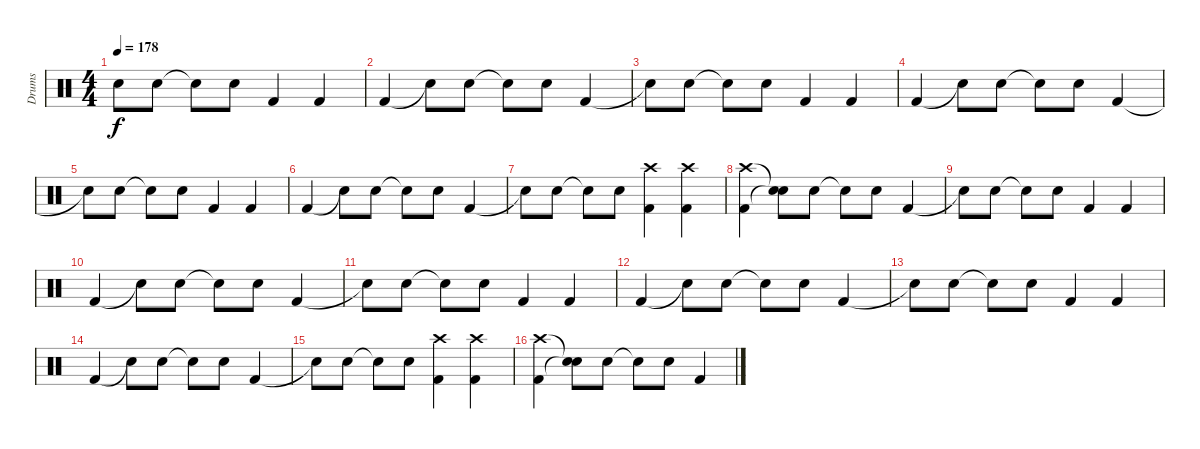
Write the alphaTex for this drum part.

\track ("Drums" "Drums") {instrument percussion}
\staff {score}
\articulation defaults
\ts (4 4)
\tempo 178
\clef neutral
\ks c "Snare (hit)"{t}.8{dy f} "Electric Snare (hit)".8 "Snare (hit)"{t}.8 "Electric Snare (hit)".8 "Kick (hit) 2".4 "Kick (hit) 2".4
|
"Kick (hit) 2".4 "Snare (hit)"{t}.8 "Electric Snare (hit)".8 "Snare (hit)"{t}.8 "Electric Snare (hit)".8 "Kick (hit) 2".4 |
"Snare (hit)"{t}.8 "Electric Snare (hit)".8 "Snare (hit)"{t}.8 "Electric Snare (hit)".8 "Kick (hit) 2".4 "Kick (hit) 2".4 |
"Kick (hit) 2".4 "Snare (hit)"{t}.8 "Electric Snare (hit)".8 "Snare (hit)"{t}.8 "Electric Snare (hit)".8 "Kick (hit) 2".4 |
"Snare (hit)"{t}.8 "Electric Snare (hit)".8 "Snare (hit)"{t}.8 "Electric Snare (hit)".8 "Kick (hit) 2".4 "Kick (hit) 2".4 |
"Kick (hit) 2".4 "Snare (hit)"{t}.8 "Electric Snare (hit)".8 "Snare (hit)"{t}.8 "Electric Snare (hit)".8 "Kick (hit) 2".4 |
"Snare (hit)"{t}.8 "Electric Snare (hit)".8 "Snare (hit)"{t}.8 "Electric Snare (hit)".8 ("Crash high (hit)" "Kick (hit) 2").4 ("Crash high (hit)" "Kick (hit) 2").4 |
("Crash high (hit)" "Kick (hit) 2").4 ("Snare (hit)"{t} "Snare (hit)"{t}).8 "Electric Snare (hit)".8 "Snare (hit)"{t}.8 "Electric Snare (hit)".8 "Kick (hit) 2".4 |
"Snare (hit)"{t}.8 "Electric Snare (hit)".8 "Snare (hit)"{t}.8 "Electric Snare (hit)".8 "Kick (hit) 2".4 "Kick (hit) 2".4 |
"Kick (hit) 2".4 "Snare (hit)"{t}.8 "Electric Snare (hit)".8 "Snare (hit)"{t}.8 "Electric Snare (hit)".8 "Kick (hit) 2".4 |
"Snare (hit)"{t}.8 "Electric Snare (hit)".8 "Snare (hit)"{t}.8 "Electric Snare (hit)".8 "Kick (hit) 2".4 "Kick (hit) 2".4 |
"Kick (hit) 2".4 "Snare (hit)"{t}.8 "Electric Snare (hit)".8 "Snare (hit)"{t}.8 "Electric Snare (hit)".8 "Kick (hit) 2".4 |
"Snare (hit)"{t}.8 "Electric Snare (hit)".8 "Snare (hit)"{t}.8 "Electric Snare (hit)".8 "Kick (hit) 2".4 "Kick (hit) 2".4 |
"Kick (hit) 2".4 "Snare (hit)"{t}.8 "Electric Snare (hit)".8 "Snare (hit)"{t}.8 "Electric Snare (hit)".8 "Kick (hit) 2".4 |
"Snare (hit)"{t}.8 "Electric Snare (hit)".8 "Snare (hit)"{t}.8 "Electric Snare (hit)".8 ("Crash high (hit)" "Kick (hit) 2").4 ("Crash high (hit)" "Kick (hit) 2").4 |
("Crash high (hit)" "Kick (hit) 2").4 ("Snare (hit)"{t} "Snare (hit)"{t}).8 "Electric Snare (hit)".8 "Snare (hit)"{t}.8 "Electric Snare (hit)".8 "Kick (hit) 2".4
